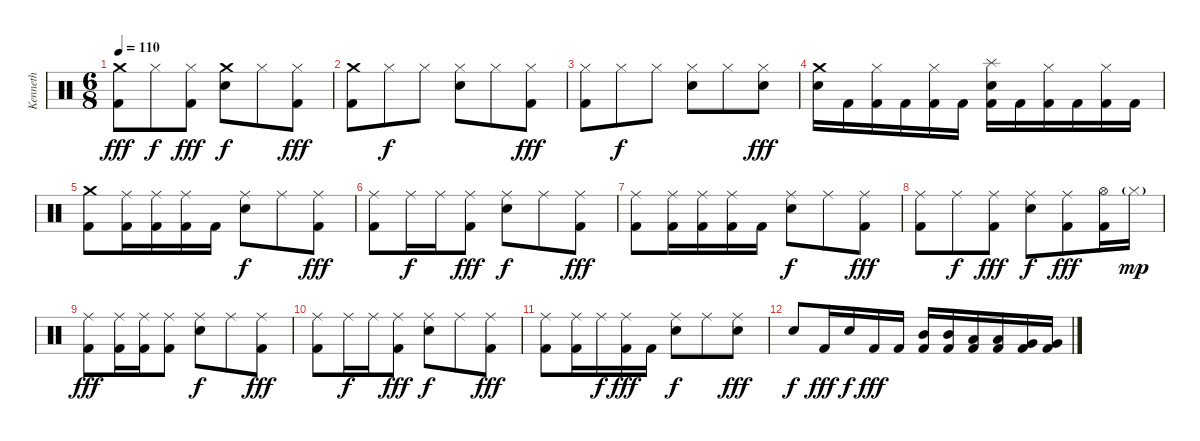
\track ("Kenneth " "Kenneth ") {instrument percussion}
\staff {score}
\articulation defaults
\ts (6 8)
\tempo 110
\clef neutral
\ks c
("Crash medium (hit)" "Kick (hit) 2").8{dy fff} "Hi-Hat (closed)".8{dy f} ("Hi-Hat (closed)" "Kick (hit) 2").8{dy fff} ("Crash medium (hit)" "Electric Snare (hit)").8{dy f} "Hi-Hat (closed)".8 ("Hi-Hat (closed)" "Kick (hit) 2").8{dy fff} |
("Crash medium (hit)" "Kick (hit) 2").8 "Hi-Hat (closed)".8{dy f} "Hi-Hat (closed)".8 ("Hi-Hat (closed)" "Electric Snare (hit)").8 "Hi-Hat (closed)".8 ("Hi-Hat (closed)" "Kick (hit) 2").8{dy fff} |
("Hi-Hat (closed)" "Kick (hit) 2").8 "Hi-Hat (closed)".8{dy f} "Hi-Hat (closed)".8 ("Hi-Hat (closed)" "Electric Snare (hit)").8 "Hi-Hat (closed)".8 ("Hi-Hat (closed)" "Electric Snare (hit)").8{dy fff} |
("Crash medium (hit)" "Electric Snare (hit)").16 "Kick (hit) 2".16 ("Hi-Hat (closed)" "Kick (hit) 2").16 "Kick (hit) 2".16 ("Hi-Hat (closed)" "Kick (hit) 2").16 "Kick (hit) 2".16 ("Splash (hit)" "Electric Snare (hit)" "Kick (hit) 2").16 "Kick (hit) 2".16 ("Hi-Hat (closed)" "Kick (hit) 2").16 "Kick (hit) 2".16 ("Hi-Hat (closed)" "Kick (hit) 2").16 "Kick (hit) 2".16 |
("Crash medium (hit)" "Kick (hit) 2").8 ("Ride (middle)" "Kick (hit) 2").16 ("Ride (middle)" "Kick (hit) 2").16 ("Ride (middle)" "Kick (hit) 2").16 "Kick (hit) 2".16 ("Ride (middle)" "Electric Snare (hit)").8{dy f} "Ride (middle)".8 ("Ride (middle)" "Kick (hit) 2").8{dy fff} |
("Ride (middle)" "Kick (hit) 2").8 "Ride (middle)".16{dy f} "Ride (middle)".16 ("Ride (middle)" "Kick (hit) 2").8{dy fff} ("Ride (middle)" "Electric Snare (hit)").8{dy f} "Ride (middle)".8 ("Ride (middle)" "Kick (hit) 2").8{dy fff} |
("Ride (middle)" "Kick (hit) 2").8 ("Ride (middle)" "Kick (hit) 2").16 ("Ride (middle)" "Kick (hit) 2").16 ("Ride (middle)" "Kick (hit) 2").16 "Kick (hit) 2".16 ("Ride (middle)" "Electric Snare (hit)").8{dy f} "Ride (middle)".8 ("Ride (middle)" "Kick (hit) 2").8{dy fff} |
("Ride (middle)" "Kick (hit) 2").8 "Ride (middle)".8{dy f} ("Ride (middle)" "Kick (hit) 2").8{dy fff} ("Ride (middle)" "Electric Snare (hit)").8{dy f} ("Ride (middle)" "Kick (hit) 2").8{dy fff} ("Hi-Hat (open)" "Kick (hit) 2").16 "Hi-Hat (closed)"{g}.16{dy mp} |
("Ride (middle)" "Kick (hit) 2").8{dy fff} ("Ride (middle)" "Kick (hit) 2").16 ("Ride (middle)" "Kick (hit) 2").16 ("Ride (middle)" "Kick (hit) 2").8 ("Ride (middle)" "Electric Snare (hit)").8{dy f} "Ride (middle)".8 ("Ride (middle)" "Kick (hit) 2").8{dy fff} |
("Ride (middle)" "Kick (hit) 2").8 "Ride (middle)".16{dy f} "Ride (middle)".16 ("Ride (middle)" "Kick (hit) 2").8{dy fff} ("Ride (middle)" "Electric Snare (hit)").8{dy f} "Ride (middle)".8 ("Ride (middle)" "Kick (hit) 2").8{dy fff} |
("Ride (middle)" "Kick (hit) 2").8 ("Ride (middle)" "Kick (hit) 2").16 "Ride (middle)".16{dy f} ("Ride (middle)" "Kick (hit) 2").16{dy fff} "Kick (hit) 2".16 ("Ride (middle)" "Electric Snare (hit)").8{dy f} "Ride (middle)".8 ("Ride (middle)" "Electric Snare (hit)").8{dy fff} |
"Electric Snare (hit)".8{dy f} "Kick (hit) 2".16{dy fff} "Electric Snare (hit)".16{dy f} "Kick (hit) 2".16{dy fff} "Kick (hit) 2".16 ("Mid Tom (hit)" "Kick (hit) 2").16 ("Mid Tom (hit)" "Kick (hit) 2").16 ("Low Tom (hit)" "Kick (hit) 2").16 ("Low Tom (hit)" "Kick (hit) 2").16 ("Very Low Tom (hit)" "Kick (hit) 2").16 ("Very Low Tom (hit)" "Kick (hit) 2").16
